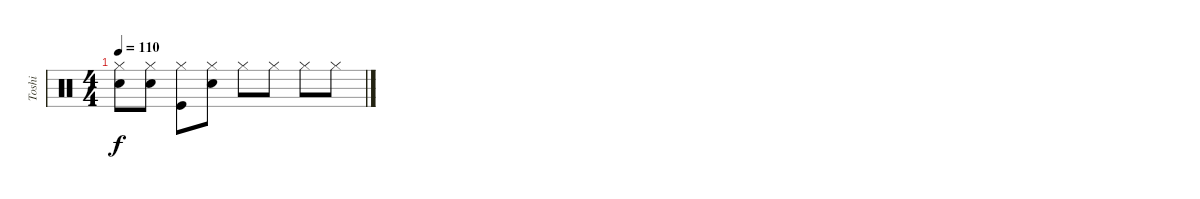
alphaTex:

\track ("Toshi" "Toshi") {instrument percussion}
\staff {score}
\articulation defaults
\ts (4 4)
\tempo 110
\clef neutral
\ks c
("Hi-Hat (closed)" "Snare (hit) 2").8{dy f volume 2} ("Hi-Hat (closed)" "Snare (hit) 2").8 ("Hi-Hat (closed)" "Kick (hit)").8 ("Hi-Hat (closed)" "Snare (hit) 2").8 "Hi-Hat (closed)".8 "Hi-Hat (closed)".8 "Hi-Hat (closed)".8 "Hi-Hat (closed)".8
